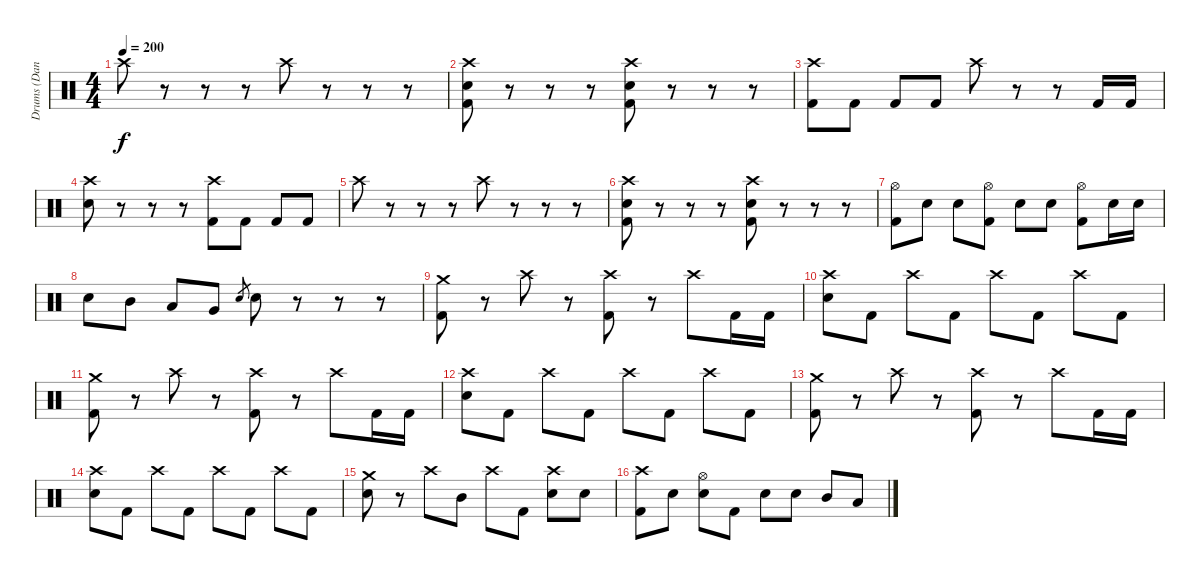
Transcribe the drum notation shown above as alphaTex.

\track ("Drums (Daniel)" "Drums (Dan") {instrument percussion}
\staff {score}
\articulation defaults
\ts (4 4)
\tempo 200
\clef neutral
\ks c "Crash high (hit)".8{dy f}
r.8 r.8 r.8 "Crash high (hit)".8 r.8 r.8 r.8 |
("Crash high (hit)" "Electric Snare (hit)" "Kick (hit) 2").8 r.8 r.8 r.8 ("Crash high (hit)" "Electric Snare (hit)" "Kick (hit) 2").8 r.8 r.8 r.8 |
("Crash high (hit)" "Kick (hit) 2").8 "Kick (hit) 2".8 "Kick (hit) 2".8 "Kick (hit) 2".8 "Crash high (hit)".8 r.8 r.8 "Kick (hit) 2".16 "Kick (hit) 2".16 |
("Crash high (hit)" "Electric Snare (hit)").8 r.8 r.8 r.8 ("Crash high (hit)" "Kick (hit) 2").8 "Kick (hit) 2".8 "Kick (hit) 2".8 "Kick (hit) 2".8 |
"Crash high (hit)".8 r.8 r.8 r.8 "Crash high (hit)".8 r.8 r.8 r.8 |
("Crash high (hit)" "Electric Snare (hit)" "Kick (hit) 2").8 r.8 r.8 r.8 ("Crash high (hit)" "Electric Snare (hit)" "Kick (hit) 2").8 r.8 r.8 r.8 |
("Hi-Hat (open)" "Kick (hit) 2").8 "Electric Snare (hit)".8 "Electric Snare (hit)".8 ("Hi-Hat (open)" "Kick (hit) 2").8 "Electric Snare (hit)".8 "Electric Snare (hit)".8 ("Hi-Hat (open)" "Kick (hit) 2").8 "Electric Snare (hit)".16 "Electric Snare (hit)".16 |
"Electric Snare (hit)".8 "Mid Tom (hit)".8 "Low Tom (hit)".8 "Very Low Tom (hit)".8 "Electric Snare (hit)".8{gr} "Electric Snare (hit)".8 r.8 r.8 r.8 |
("Crash medium (hit)" "Kick (hit) 2").8 r.8 "Crash high (hit)".8 r.8 ("Crash high (hit)" "Kick (hit) 2").8 r.8 "Crash high (hit)".8 "Kick (hit) 2".16 "Kick (hit) 2".16 |
("Crash high (hit)" "Electric Snare (hit)").8 "Kick (hit) 2".8 "Crash high (hit)".8 "Kick (hit) 2".8 "Crash high (hit)".8 "Kick (hit) 2".8 "Crash high (hit)".8 "Kick (hit) 2".8 |
("Crash medium (hit)" "Kick (hit) 2").8 r.8 "Crash high (hit)".8 r.8 ("Crash high (hit)" "Kick (hit) 2").8 r.8 "Crash high (hit)".8 "Kick (hit) 2".16 "Kick (hit) 2".16 |
("Crash high (hit)" "Electric Snare (hit)").8 "Kick (hit) 2".8 "Crash high (hit)".8 "Kick (hit) 2".8 "Crash high (hit)".8 "Kick (hit) 2".8 "Crash high (hit)".8 "Kick (hit) 2".8 |
("Crash medium (hit)" "Kick (hit) 2").8 r.8 "Crash high (hit)".8 r.8 ("Crash high (hit)" "Kick (hit) 2").8 r.8 "Crash high (hit)".8 "Kick (hit) 2".16 "Kick (hit) 2".16 |
("Crash high (hit)" "Electric Snare (hit)").8 "Kick (hit) 2".8 "Crash high (hit)".8 "Kick (hit) 2".8 "Crash high (hit)".8 "Kick (hit) 2".8 "Crash high (hit)".8 "Kick (hit) 2".8 |
("Crash medium (hit)" "Electric Snare (hit)").8 r.8 "Crash high (hit)".8 "Mid Tom (hit)".8 "Crash high (hit)".8 "Kick (hit) 2".8 ("Crash high (hit)" "Electric Snare (hit)").8 "Electric Snare (hit)".8 |
("Crash high (hit)" "Kick (hit) 2").8 "Electric Snare (hit)".8 ("Hi-Hat (open)" "Electric Snare (hit)").8 "Kick (hit) 2".8 "Electric Snare (hit)".8 "Electric Snare (hit)".8 "Mid Tom (hit)".8 "Low Tom (hit)".8
